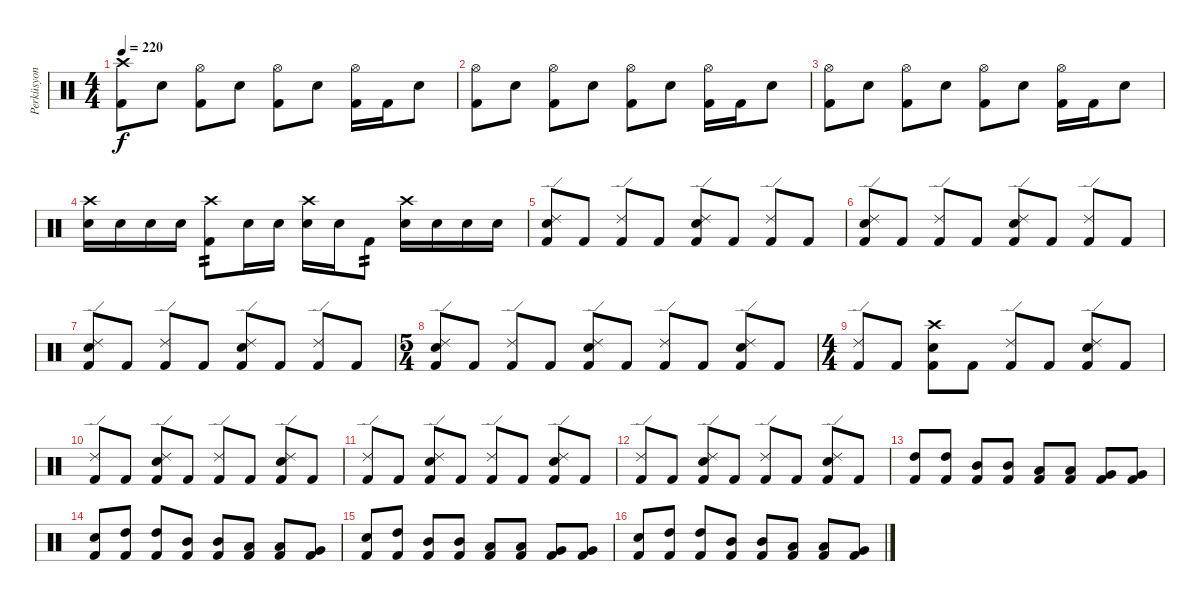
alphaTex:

\track ("Perküsyon" "Perküsyon") {instrument percussion}
\staff {score}
\articulation defaults
\ts (4 4)
\tempo 220
\clef neutral
\ks c
("Crash high (hit)" "Kick (hit) 2").8{dy f} "Electric Snare (hit)".8 ("Hi-Hat (open)" "Kick (hit) 2").8 "Electric Snare (hit)".8 ("Hi-Hat (open)" "Kick (hit) 2").8 "Electric Snare (hit)".8 ("Hi-Hat (open)" "Kick (hit) 2").16 "Kick (hit) 2".16 "Electric Snare (hit)".8 |
("Hi-Hat (open)" "Kick (hit) 2").8 "Electric Snare (hit)".8 ("Hi-Hat (open)" "Kick (hit) 2").8 "Electric Snare (hit)".8 ("Hi-Hat (open)" "Kick (hit) 2").8 "Electric Snare (hit)".8 ("Hi-Hat (open)" "Kick (hit) 2").16 "Kick (hit) 2".16 "Electric Snare (hit)".8 |
("Hi-Hat (open)" "Kick (hit) 2").8 "Electric Snare (hit)".8 ("Hi-Hat (open)" "Kick (hit) 2").8 "Electric Snare (hit)".8 ("Hi-Hat (open)" "Kick (hit) 2").8 "Electric Snare (hit)".8 ("Hi-Hat (open)" "Kick (hit) 2").16 "Kick (hit) 2".16 "Electric Snare (hit)".8 |
("Crash high (hit)" "Electric Snare (hit)").16 "Electric Snare (hit)".16 "Electric Snare (hit)".16 "Electric Snare (hit)".16 ("Crash high (hit)" "Kick (hit) 2").8{tp 2} "Electric Snare (hit)".16 "Electric Snare (hit)".16 ("Crash high (hit)" "Electric Snare (hit)").16 "Electric Snare (hit)".16 "Kick (hit) 2".8{tp 2} ("Crash high (hit)" "Electric Snare (hit)").16 "Electric Snare (hit)".16 "Electric Snare (hit)".16 "Electric Snare (hit)".16 |
("Ride (edge) 2" "Electric Snare (hit)" "Kick (hit) 2").8 "Kick (hit) 2".8 ("Ride (edge) 2" "Kick (hit) 2").8 "Kick (hit) 2".8 ("Ride (edge) 2" "Electric Snare (hit)" "Kick (hit) 2").8 "Kick (hit) 2".8 ("Ride (edge) 2" "Kick (hit) 2").8 "Kick (hit) 2".8 |
("Ride (edge) 2" "Electric Snare (hit)" "Kick (hit) 2").8 "Kick (hit) 2".8 ("Ride (edge) 2" "Kick (hit) 2").8 "Kick (hit) 2".8 ("Ride (edge) 2" "Electric Snare (hit)" "Kick (hit) 2").8 "Kick (hit) 2".8 ("Ride (edge) 2" "Kick (hit) 2").8 "Kick (hit) 2".8 |
("Ride (edge) 2" "Electric Snare (hit)" "Kick (hit) 2").8 "Kick (hit) 2".8 ("Ride (edge) 2" "Kick (hit) 2").8 "Kick (hit) 2".8 ("Ride (edge) 2" "Electric Snare (hit)" "Kick (hit) 2").8 "Kick (hit) 2".8 ("Ride (edge) 2" "Kick (hit) 2").8 "Kick (hit) 2".8 |
\ts (5 4)
("Ride (edge) 2" "Electric Snare (hit)" "Kick (hit) 2").8 "Kick (hit) 2".8 ("Ride (edge) 2" "Kick (hit) 2").8 "Kick (hit) 2".8 ("Ride (edge) 2" "Electric Snare (hit)" "Kick (hit) 2").8 "Kick (hit) 2".8 ("Ride (edge) 2" "Kick (hit) 2").8 "Kick (hit) 2".8 ("Ride (edge) 2" "Electric Snare (hit)" "Kick (hit) 2").8 "Kick (hit) 2".8 |
\ts (4 4)
("Ride (edge) 2" "Kick (hit) 2").8 "Kick (hit) 2".8 ("Crash high (hit)" "Electric Snare (hit)" "Kick (hit) 2").8 "Kick (hit) 2".8 ("Ride (edge) 2" "Kick (hit) 2").8 "Kick (hit) 2".8 ("Ride (edge) 2" "Electric Snare (hit)" "Kick (hit) 2").8 "Kick (hit) 2".8 |
("Ride (edge) 2" "Kick (hit) 2").8 "Kick (hit) 2".8 ("Ride (edge) 2" "Electric Snare (hit)" "Kick (hit) 2").8 "Kick (hit) 2".8 ("Ride (edge) 2" "Kick (hit) 2").8 "Kick (hit) 2".8 ("Ride (edge) 2" "Electric Snare (hit)" "Kick (hit) 2").8 "Kick (hit) 2".8 |
("Ride (edge) 2" "Kick (hit) 2").8 "Kick (hit) 2".8 ("Ride (edge) 2" "Electric Snare (hit)" "Kick (hit) 2").8 "Kick (hit) 2".8 ("Ride (edge) 2" "Kick (hit) 2").8 "Kick (hit) 2".8 ("Ride (edge) 2" "Electric Snare (hit)" "Kick (hit) 2").8 "Kick (hit) 2".8 |
("Ride (edge) 2" "Kick (hit) 2").8 "Kick (hit) 2".8 ("Ride (edge) 2" "Electric Snare (hit)" "Kick (hit) 2").8 "Kick (hit) 2".8 ("Ride (edge) 2" "Kick (hit) 2").8 "Kick (hit) 2".8 ("Ride (edge) 2" "Electric Snare (hit)" "Kick (hit) 2").8 "Kick (hit) 2".8 |
("High Tom (hit)" "Kick (hit) 2").8 ("High Tom (hit)" "Kick (hit) 2").8 ("Mid Tom (hit)" "Kick (hit) 2").8 ("Mid Tom (hit)" "Kick (hit) 2").8 ("Low Tom (hit)" "Kick (hit) 2").8 ("Low Tom (hit)" "Kick (hit) 2").8 ("Very Low Tom (hit)" "Kick (hit) 2").8 ("Very Low Tom (hit)" "Kick (hit) 2").8 |
("Electric Snare (hit)" "Kick (hit) 2").8 ("High Tom (hit)" "Kick (hit) 2").8 ("High Tom (hit)" "Kick (hit) 2").8 ("Mid Tom (hit)" "Kick (hit) 2").8 ("Mid Tom (hit)" "Kick (hit) 2").8 ("Low Tom (hit)" "Kick (hit) 2").8 ("Low Tom (hit)" "Kick (hit) 2").8 ("Very Low Tom (hit)" "Kick (hit) 2").8 |
("Electric Snare (hit)" "Kick (hit) 2").8 ("High Tom (hit)" "Kick (hit) 2").8 ("Mid Tom (hit)" "Kick (hit) 2").8 ("Mid Tom (hit)" "Kick (hit) 2").8 ("Low Tom (hit)" "Kick (hit) 2").8 ("Low Tom (hit)" "Kick (hit) 2").8 ("Very Low Tom (hit)" "Kick (hit) 2").8 ("Very Low Tom (hit)" "Kick (hit) 2").8 |
("Electric Snare (hit)" "Kick (hit) 2").8 ("High Tom (hit)" "Kick (hit) 2").8 ("High Tom (hit)" "Kick (hit) 2").8 ("Mid Tom (hit)" "Kick (hit) 2").8 ("Mid Tom (hit)" "Kick (hit) 2").8 ("Low Tom (hit)" "Kick (hit) 2").8 ("Low Tom (hit)" "Kick (hit) 2").8 ("Very Low Tom (hit)" "Kick (hit) 2").8
